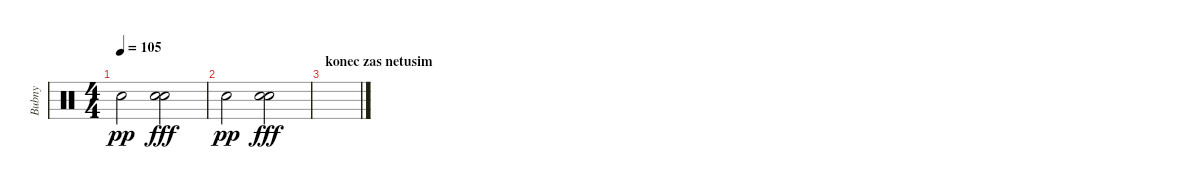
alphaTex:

\track ("Bubny" "Bubny") {instrument percussion}
\staff {score}
\articulation defaults
\ts (4 4)
\tempo 105
\clef neutral
\ks c "Electric Snare (hit)"{tr (40 64)}.2{dy pp}
("Snare (hit) 2" "Electric Snare (hit)").2{dy fff} |
"Electric Snare (hit)"{tr (40 64)}.2{dy pp} ("Snare (hit) 2" "Electric Snare (hit)").2{dy fff} |
\section ("" "konec zas netusim")
